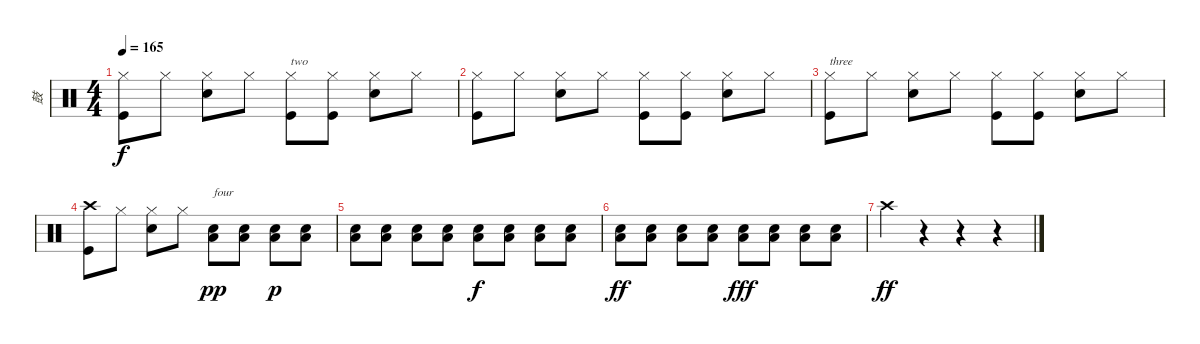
\track ("鼓" "鼓") {instrument percussion}
\staff {score}
\articulation defaults
\ts (4 4)
\tempo 165
\clef neutral
\ks c
("Hi-Hat (closed)" "Kick (hit)").8{dy f} "Hi-Hat (closed)".8 ("Hi-Hat (closed)" "Snare (hit) 2").8 "Hi-Hat (closed)".8 ("Hi-Hat (closed)" "Kick (hit)").8{txt "two"} ("Hi-Hat (closed)" "Kick (hit)").8 ("Hi-Hat (closed)" "Snare (hit) 2").8 "Hi-Hat (closed)".8 |
("Hi-Hat (closed)" "Kick (hit)").8 "Hi-Hat (closed)".8 ("Hi-Hat (closed)" "Snare (hit) 2").8 "Hi-Hat (closed)".8 ("Hi-Hat (closed)" "Kick (hit)").8 ("Hi-Hat (closed)" "Kick (hit)").8 ("Hi-Hat (closed)" "Snare (hit) 2").8 "Hi-Hat (closed)".8 |
("Hi-Hat (closed)" "Kick (hit)").8{txt "three"} "Hi-Hat (closed)".8 ("Hi-Hat (closed)" "Snare (hit) 2").8 "Hi-Hat (closed)".8 ("Hi-Hat (closed)" "Kick (hit)").8 ("Hi-Hat (closed)" "Kick (hit)").8 ("Hi-Hat (closed)" "Snare (hit) 2").8 "Hi-Hat (closed)".8 |
("Crash high (hit)" "Kick (hit)").8 "Hi-Hat (closed)".8 ("Hi-Hat (closed)" "Snare (hit) 2").8 "Hi-Hat (closed)".8 ("Low Floor Tom (hit)" "Snare (hit) 2").8{txt "four" dy pp} ("Low Floor Tom (hit)" "Snare (hit) 2").8 ("Low Floor Tom (hit)" "Snare (hit) 2").8{dy p} ("Low Floor Tom (hit)" "Snare (hit) 2").8 |
("Low Floor Tom (hit)" "Snare (hit) 2").8 ("Low Floor Tom (hit)" "Snare (hit) 2").8 ("Low Floor Tom (hit)" "Snare (hit) 2").8 ("Low Floor Tom (hit)" "Snare (hit) 2").8 ("Low Floor Tom (hit)" "Snare (hit) 2").8{dy f} ("Low Floor Tom (hit)" "Snare (hit) 2").8 ("Low Floor Tom (hit)" "Snare (hit) 2").8 ("Low Floor Tom (hit)" "Snare (hit) 2").8 |
("Low Floor Tom (hit)" "Snare (hit) 2").8{dy ff} ("Low Floor Tom (hit)" "Snare (hit) 2").8 ("Low Floor Tom (hit)" "Snare (hit) 2").8 ("Low Floor Tom (hit)" "Snare (hit) 2").8 ("Low Floor Tom (hit)" "Snare (hit) 2").8{dy fff} ("Low Floor Tom (hit)" "Snare (hit) 2").8 ("Low Floor Tom (hit)" "Snare (hit) 2").8 ("Low Floor Tom (hit)" "Snare (hit) 2").8 |
"Crash high (hit)".4{dy ff} r.4 r.4 r.4
